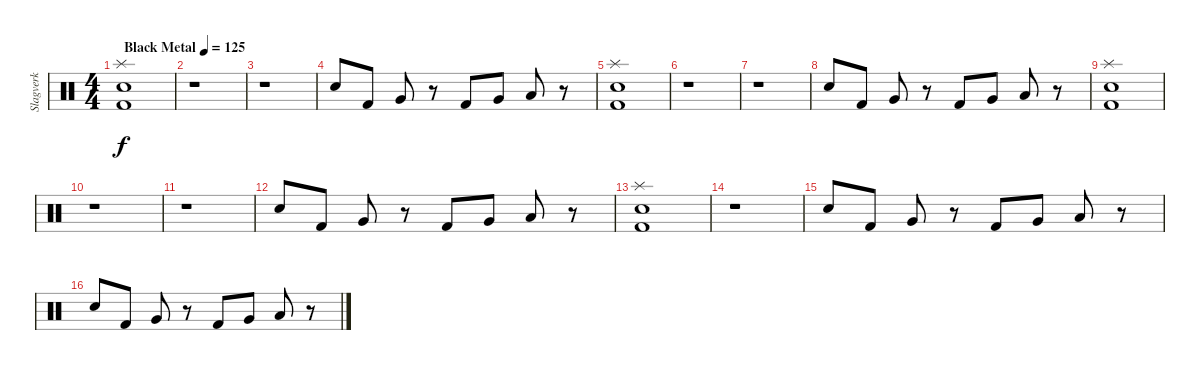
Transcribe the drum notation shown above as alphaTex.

\track ("Slagverk" "Slagverk") {instrument percussion}
\staff {score}
\articulation defaults
\ts (4 4)
\tempo (125 "Black Metal")
\clef neutral
\ks c
("Splash (hit)" "Electric Snare (hit)" "Kick (hit) 2").1{dy f} |
r.1 |
r.1 |
"Electric Snare (hit)".8 "Kick (hit) 2".8 "Very Low Tom (hit)".8 r.8 "Kick (hit) 2".8 "Very Low Tom (hit)".8 "Low Tom (hit)".8 r.8 |
("Splash (hit)" "Electric Snare (hit)" "Kick (hit) 2").1 |
r.1 |
r.1 |
"Electric Snare (hit)".8 "Kick (hit) 2".8 "Very Low Tom (hit)".8 r.8 "Kick (hit) 2".8 "Very Low Tom (hit)".8 "Low Tom (hit)".8 r.8 |
("Splash (hit)" "Electric Snare (hit)" "Kick (hit) 2").1 |
r.1 |
r.1 |
"Electric Snare (hit)".8 "Kick (hit) 2".8 "Very Low Tom (hit)".8 r.8 "Kick (hit) 2".8 "Very Low Tom (hit)".8 "Low Tom (hit)".8 r.8 |
("Splash (hit)" "Electric Snare (hit)" "Kick (hit) 2").1 |
r.1 |
"Electric Snare (hit)".8 "Kick (hit) 2".8 "Very Low Tom (hit)".8 r.8 "Kick (hit) 2".8 "Very Low Tom (hit)".8 "Low Tom (hit)".8 r.8 |
"Electric Snare (hit)".8 "Kick (hit) 2".8 "Very Low Tom (hit)".8 r.8 "Kick (hit) 2".8 "Very Low Tom (hit)".8 "Low Tom (hit)".8 r.8
